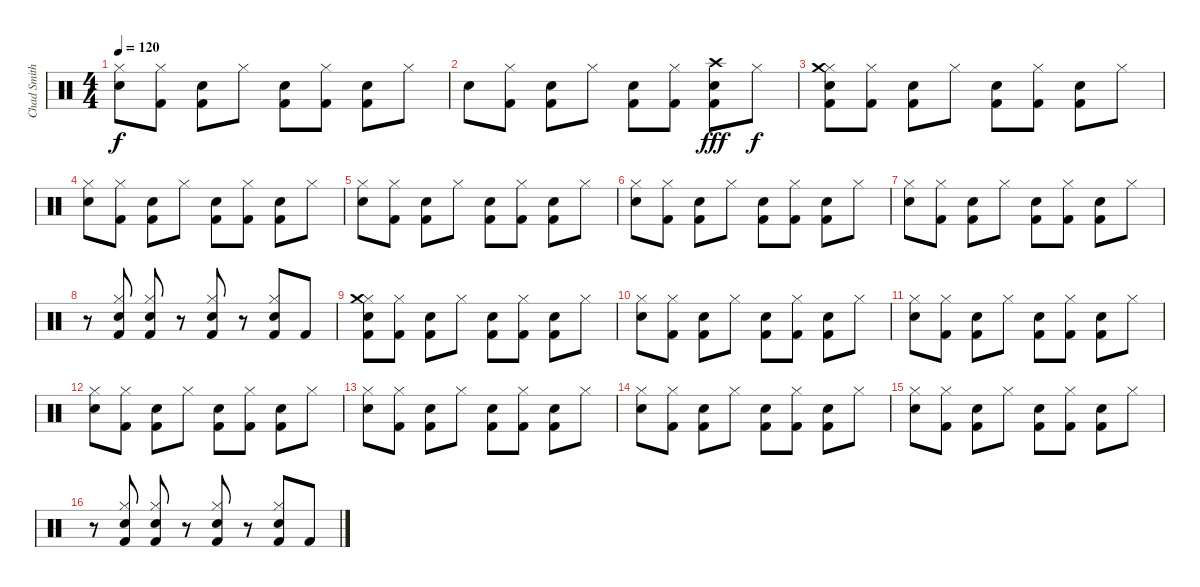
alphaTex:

\track ("Chad Smith" "Chad Smith") {instrument percussion}
\staff {score}
\articulation defaults
\ts (4 4)
\tempo 120
\clef neutral
\ks c
("Electric Snare (hit)" "Hi-Hat (closed)").8{dy f} ("Hi-Hat (closed)" "Kick (hit) 2").8 ("Electric Snare (hit)" "Kick (hit) 2").8 "Hi-Hat (closed)".8 ("Electric Snare (hit)" "Kick (hit) 2").8 ("Hi-Hat (closed)" "Kick (hit) 2").8 ("Electric Snare (hit)" "Kick (hit) 2").8 "Hi-Hat (closed)".8 |
"Electric Snare (hit)".8 ("Hi-Hat (closed)" "Kick (hit) 2").8 ("Electric Snare (hit)" "Kick (hit) 2").8 "Hi-Hat (closed)".8 ("Electric Snare (hit)" "Kick (hit) 2").8 ("Hi-Hat (closed)" "Kick (hit) 2").8 ("Electric Snare (hit)" "Kick (hit) 2" "Crash high (hit)").8{dy fff} "Hi-Hat (closed)".8{dy f} |
("Electric Snare (hit)" "Hi-Hat (closed)" "Crash medium (hit)" "Kick (hit) 2").8 ("Hi-Hat (closed)" "Kick (hit) 2").8 ("Electric Snare (hit)" "Kick (hit) 2").8 "Hi-Hat (closed)".8 ("Electric Snare (hit)" "Kick (hit) 2").8 ("Hi-Hat (closed)" "Kick (hit) 2").8 ("Electric Snare (hit)" "Kick (hit) 2").8 "Hi-Hat (closed)".8 |
("Electric Snare (hit)" "Hi-Hat (closed)").8 ("Hi-Hat (closed)" "Kick (hit) 2").8 ("Electric Snare (hit)" "Kick (hit) 2").8 "Hi-Hat (closed)".8 ("Electric Snare (hit)" "Kick (hit) 2").8 ("Hi-Hat (closed)" "Kick (hit) 2").8 ("Electric Snare (hit)" "Kick (hit) 2").8 "Hi-Hat (closed)".8 |
("Electric Snare (hit)" "Hi-Hat (closed)").8 ("Hi-Hat (closed)" "Kick (hit) 2").8 ("Electric Snare (hit)" "Kick (hit) 2").8 "Hi-Hat (closed)".8 ("Electric Snare (hit)" "Kick (hit) 2").8 ("Hi-Hat (closed)" "Kick (hit) 2").8 ("Electric Snare (hit)" "Kick (hit) 2").8 "Hi-Hat (closed)".8 |
("Electric Snare (hit)" "Hi-Hat (closed)").8 ("Hi-Hat (closed)" "Kick (hit) 2").8 ("Electric Snare (hit)" "Kick (hit) 2").8 "Hi-Hat (closed)".8 ("Electric Snare (hit)" "Kick (hit) 2").8 ("Hi-Hat (closed)" "Kick (hit) 2").8 ("Electric Snare (hit)" "Kick (hit) 2").8 "Hi-Hat (closed)".8 |
("Electric Snare (hit)" "Hi-Hat (closed)").8 ("Hi-Hat (closed)" "Kick (hit) 2").8 ("Electric Snare (hit)" "Kick (hit) 2").8 "Hi-Hat (closed)".8 ("Electric Snare (hit)" "Kick (hit) 2").8 ("Hi-Hat (closed)" "Kick (hit) 2").8 ("Electric Snare (hit)" "Kick (hit) 2").8 "Hi-Hat (closed)".8 |
r.8 ("Electric Snare (hit)" "Kick (hit) 2" "Hi-Hat (closed)").8 ("Electric Snare (hit)" "Kick (hit) 2" "Hi-Hat (closed)").8 r.8 ("Electric Snare (hit)" "Kick (hit) 2" "Hi-Hat (closed)").8 r.8 ("Electric Snare (hit)" "Kick (hit) 2" "Hi-Hat (closed)").8 "Kick (hit) 2".8 |
("Electric Snare (hit)" "Hi-Hat (closed)" "Crash medium (hit)" "Kick (hit) 2").8 ("Hi-Hat (closed)" "Kick (hit) 2").8 ("Electric Snare (hit)" "Kick (hit) 2").8 "Hi-Hat (closed)".8 ("Electric Snare (hit)" "Kick (hit) 2").8 ("Hi-Hat (closed)" "Kick (hit) 2").8 ("Electric Snare (hit)" "Kick (hit) 2").8 "Hi-Hat (closed)".8 |
("Electric Snare (hit)" "Hi-Hat (closed)").8 ("Hi-Hat (closed)" "Kick (hit) 2").8 ("Electric Snare (hit)" "Kick (hit) 2").8 "Hi-Hat (closed)".8 ("Electric Snare (hit)" "Kick (hit) 2").8 ("Hi-Hat (closed)" "Kick (hit) 2").8 ("Electric Snare (hit)" "Kick (hit) 2").8 "Hi-Hat (closed)".8 |
("Electric Snare (hit)" "Hi-Hat (closed)").8 ("Hi-Hat (closed)" "Kick (hit) 2").8 ("Electric Snare (hit)" "Kick (hit) 2").8 "Hi-Hat (closed)".8 ("Electric Snare (hit)" "Kick (hit) 2").8 ("Hi-Hat (closed)" "Kick (hit) 2").8 ("Electric Snare (hit)" "Kick (hit) 2").8 "Hi-Hat (closed)".8 |
("Electric Snare (hit)" "Hi-Hat (closed)").8 ("Hi-Hat (closed)" "Kick (hit) 2").8 ("Electric Snare (hit)" "Kick (hit) 2").8 "Hi-Hat (closed)".8 ("Electric Snare (hit)" "Kick (hit) 2").8 ("Hi-Hat (closed)" "Kick (hit) 2").8 ("Electric Snare (hit)" "Kick (hit) 2").8 "Hi-Hat (closed)".8 |
("Electric Snare (hit)" "Hi-Hat (closed)").8 ("Hi-Hat (closed)" "Kick (hit) 2").8 ("Electric Snare (hit)" "Kick (hit) 2").8 "Hi-Hat (closed)".8 ("Electric Snare (hit)" "Kick (hit) 2").8 ("Hi-Hat (closed)" "Kick (hit) 2").8 ("Electric Snare (hit)" "Kick (hit) 2").8 "Hi-Hat (closed)".8 |
("Electric Snare (hit)" "Hi-Hat (closed)").8 ("Hi-Hat (closed)" "Kick (hit) 2").8 ("Electric Snare (hit)" "Kick (hit) 2").8 "Hi-Hat (closed)".8 ("Electric Snare (hit)" "Kick (hit) 2").8 ("Hi-Hat (closed)" "Kick (hit) 2").8 ("Electric Snare (hit)" "Kick (hit) 2").8 "Hi-Hat (closed)".8 |
("Electric Snare (hit)" "Hi-Hat (closed)").8 ("Hi-Hat (closed)" "Kick (hit) 2").8 ("Electric Snare (hit)" "Kick (hit) 2").8 "Hi-Hat (closed)".8 ("Electric Snare (hit)" "Kick (hit) 2").8 ("Hi-Hat (closed)" "Kick (hit) 2").8 ("Electric Snare (hit)" "Kick (hit) 2").8 "Hi-Hat (closed)".8 |
r.8 ("Electric Snare (hit)" "Kick (hit) 2" "Hi-Hat (closed)").8 ("Electric Snare (hit)" "Kick (hit) 2" "Hi-Hat (closed)").8 r.8 ("Electric Snare (hit)" "Kick (hit) 2" "Hi-Hat (closed)").8 r.8 ("Electric Snare (hit)" "Kick (hit) 2" "Hi-Hat (closed)").8 "Kick (hit) 2".8
